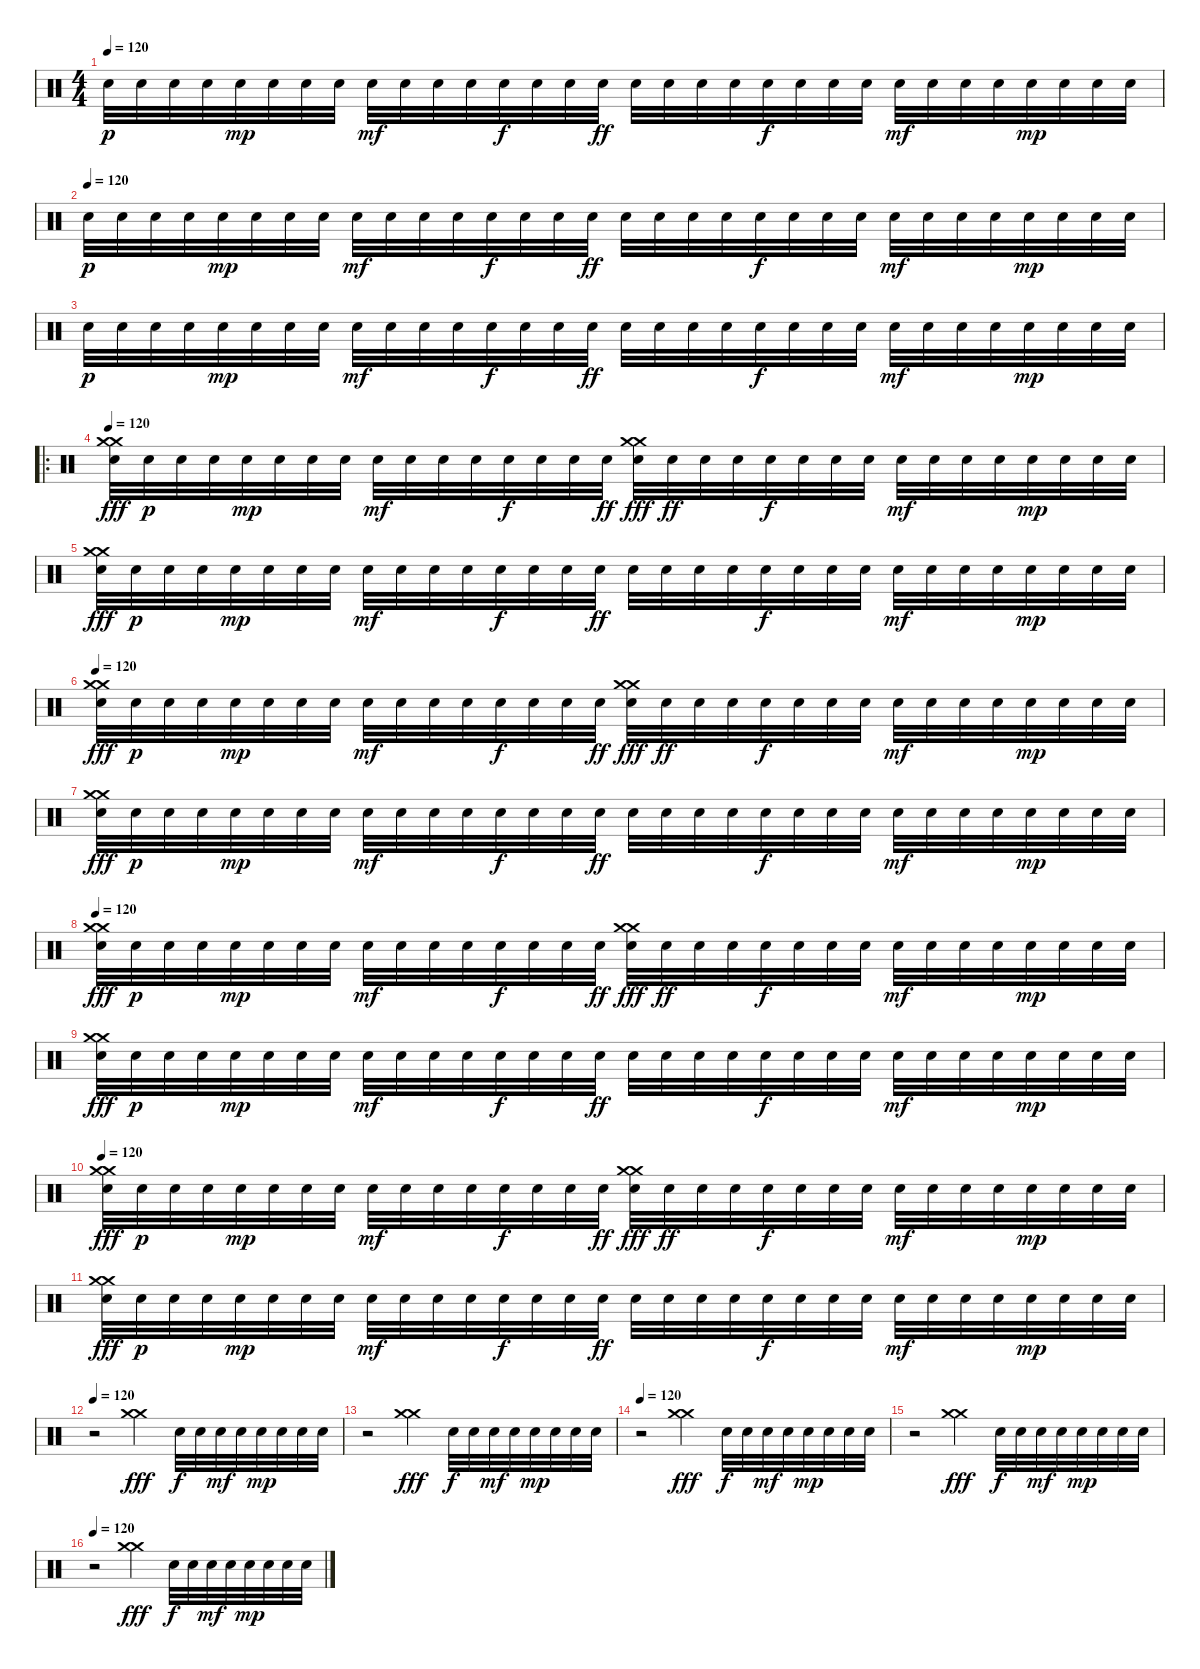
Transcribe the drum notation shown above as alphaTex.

\track "" {instrument percussion}
\staff {score}
\articulation defaults
\ts (4 4)
\tempo 120
\clef neutral
\ks c "Snare (hit) 2".32{dy p} "Snare (hit) 2".32 "Snare (hit) 2".32 "Snare (hit) 2".32 "Snare (hit) 2".32{dy mp} "Snare (hit) 2".32 "Snare (hit) 2".32 "Snare (hit) 2".32 "Snare (hit) 2".32{dy mf} "Snare (hit) 2".32 "Snare (hit) 2".32 "Snare (hit) 2".32 "Snare (hit) 2".32{dy f} "Snare (hit) 2".32 "Snare (hit) 2".32 "Snare (hit) 2".32{dy ff} "Snare (hit) 2".32 "Snare (hit) 2".32 "Snare (hit) 2".32 "Snare (hit) 2".32 "Snare (hit) 2".32{dy f} "Snare (hit) 2".32 "Snare (hit) 2".32 "Snare (hit) 2".32 "Snare (hit) 2".32{dy mf} "Snare (hit) 2".32 "Snare (hit) 2".32 "Snare (hit) 2".32 "Snare (hit) 2".32{dy mp} "Snare (hit) 2".32 "Snare (hit) 2".32 "Snare (hit) 2".32
|
\tempo (120)
"Snare (hit) 2".32{dy p} "Snare (hit) 2".32 "Snare (hit) 2".32 "Snare (hit) 2".32 "Snare (hit) 2".32{dy mp} "Snare (hit) 2".32 "Snare (hit) 2".32 "Snare (hit) 2".32 "Snare (hit) 2".32{dy mf} "Snare (hit) 2".32 "Snare (hit) 2".32 "Snare (hit) 2".32 "Snare (hit) 2".32{dy f} "Snare (hit) 2".32 "Snare (hit) 2".32 "Snare (hit) 2".32{dy ff} "Snare (hit) 2".32 "Snare (hit) 2".32 "Snare (hit) 2".32 "Snare (hit) 2".32 "Snare (hit) 2".32{dy f} "Snare (hit) 2".32 "Snare (hit) 2".32 "Snare (hit) 2".32 "Snare (hit) 2".32{dy mf} "Snare (hit) 2".32 "Snare (hit) 2".32 "Snare (hit) 2".32 "Snare (hit) 2".32{dy mp} "Snare (hit) 2".32 "Snare (hit) 2".32 "Snare (hit) 2".32 |
"Snare (hit) 2".32{dy p} "Snare (hit) 2".32 "Snare (hit) 2".32 "Snare (hit) 2".32 "Snare (hit) 2".32{dy mp} "Snare (hit) 2".32 "Snare (hit) 2".32 "Snare (hit) 2".32 "Snare (hit) 2".32{dy mf} "Snare (hit) 2".32 "Snare (hit) 2".32 "Snare (hit) 2".32 "Snare (hit) 2".32{dy f} "Snare (hit) 2".32 "Snare (hit) 2".32 "Snare (hit) 2".32{dy ff} "Snare (hit) 2".32 "Snare (hit) 2".32 "Snare (hit) 2".32 "Snare (hit) 2".32 "Snare (hit) 2".32{dy f} "Snare (hit) 2".32 "Snare (hit) 2".32 "Snare (hit) 2".32 "Snare (hit) 2".32{dy mf} "Snare (hit) 2".32 "Snare (hit) 2".32 "Snare (hit) 2".32 "Snare (hit) 2".32{dy mp} "Snare (hit) 2".32 "Snare (hit) 2".32 "Snare (hit) 2".32 |
\ro
\tempo 120
("Snare (hit) 2" "Crash medium (hit)" "Crash medium (hit)").32{dy fff} "Snare (hit) 2".32{dy p} "Snare (hit) 2".32 "Snare (hit) 2".32 "Snare (hit) 2".32{dy mp} "Snare (hit) 2".32 "Snare (hit) 2".32 "Snare (hit) 2".32 "Snare (hit) 2".32{dy mf} "Snare (hit) 2".32 "Snare (hit) 2".32 "Snare (hit) 2".32 "Snare (hit) 2".32{dy f} "Snare (hit) 2".32 "Snare (hit) 2".32 "Snare (hit) 2".32{dy ff} ("Snare (hit) 2" "Crash medium (hit)" "Crash medium (hit)").32{dy fff} "Snare (hit) 2".32{dy ff} "Snare (hit) 2".32 "Snare (hit) 2".32 "Snare (hit) 2".32{dy f} "Snare (hit) 2".32 "Snare (hit) 2".32 "Snare (hit) 2".32 "Snare (hit) 2".32{dy mf} "Snare (hit) 2".32 "Snare (hit) 2".32 "Snare (hit) 2".32 "Snare (hit) 2".32{dy mp} "Snare (hit) 2".32 "Snare (hit) 2".32 "Snare (hit) 2".32 |
("Snare (hit) 2" "Crash medium (hit)" "Crash medium (hit)").32{dy fff} "Snare (hit) 2".32{dy p} "Snare (hit) 2".32 "Snare (hit) 2".32 "Snare (hit) 2".32{dy mp} "Snare (hit) 2".32 "Snare (hit) 2".32 "Snare (hit) 2".32 "Snare (hit) 2".32{dy mf} "Snare (hit) 2".32 "Snare (hit) 2".32 "Snare (hit) 2".32 "Snare (hit) 2".32{dy f} "Snare (hit) 2".32 "Snare (hit) 2".32 "Snare (hit) 2".32{dy ff} "Snare (hit) 2".32 "Snare (hit) 2".32 "Snare (hit) 2".32 "Snare (hit) 2".32 "Snare (hit) 2".32{dy f} "Snare (hit) 2".32 "Snare (hit) 2".32 "Snare (hit) 2".32 "Snare (hit) 2".32{dy mf} "Snare (hit) 2".32 "Snare (hit) 2".32 "Snare (hit) 2".32 "Snare (hit) 2".32{dy mp} "Snare (hit) 2".32 "Snare (hit) 2".32 "Snare (hit) 2".32 |
\tempo 120
("Snare (hit) 2" "Crash medium (hit)" "Crash medium (hit)").32{dy fff} "Snare (hit) 2".32{dy p} "Snare (hit) 2".32 "Snare (hit) 2".32 "Snare (hit) 2".32{dy mp} "Snare (hit) 2".32 "Snare (hit) 2".32 "Snare (hit) 2".32 "Snare (hit) 2".32{dy mf} "Snare (hit) 2".32 "Snare (hit) 2".32 "Snare (hit) 2".32 "Snare (hit) 2".32{dy f} "Snare (hit) 2".32 "Snare (hit) 2".32 "Snare (hit) 2".32{dy ff} ("Snare (hit) 2" "Crash medium (hit)" "Crash medium (hit)").32{dy fff} "Snare (hit) 2".32{dy ff} "Snare (hit) 2".32 "Snare (hit) 2".32 "Snare (hit) 2".32{dy f} "Snare (hit) 2".32 "Snare (hit) 2".32 "Snare (hit) 2".32 "Snare (hit) 2".32{dy mf} "Snare (hit) 2".32 "Snare (hit) 2".32 "Snare (hit) 2".32 "Snare (hit) 2".32{dy mp} "Snare (hit) 2".32 "Snare (hit) 2".32 "Snare (hit) 2".32 |
("Snare (hit) 2" "Crash medium (hit)" "Crash medium (hit)").32{dy fff} "Snare (hit) 2".32{dy p} "Snare (hit) 2".32 "Snare (hit) 2".32 "Snare (hit) 2".32{dy mp} "Snare (hit) 2".32 "Snare (hit) 2".32 "Snare (hit) 2".32 "Snare (hit) 2".32{dy mf} "Snare (hit) 2".32 "Snare (hit) 2".32 "Snare (hit) 2".32 "Snare (hit) 2".32{dy f} "Snare (hit) 2".32 "Snare (hit) 2".32 "Snare (hit) 2".32{dy ff} "Snare (hit) 2".32 "Snare (hit) 2".32 "Snare (hit) 2".32 "Snare (hit) 2".32 "Snare (hit) 2".32{dy f} "Snare (hit) 2".32 "Snare (hit) 2".32 "Snare (hit) 2".32 "Snare (hit) 2".32{dy mf} "Snare (hit) 2".32 "Snare (hit) 2".32 "Snare (hit) 2".32 "Snare (hit) 2".32{dy mp} "Snare (hit) 2".32 "Snare (hit) 2".32 "Snare (hit) 2".32 |
\tempo 120
("Snare (hit) 2" "Crash medium (hit)" "Crash medium (hit)").32{dy fff} "Snare (hit) 2".32{dy p} "Snare (hit) 2".32 "Snare (hit) 2".32 "Snare (hit) 2".32{dy mp} "Snare (hit) 2".32 "Snare (hit) 2".32 "Snare (hit) 2".32 "Snare (hit) 2".32{dy mf} "Snare (hit) 2".32 "Snare (hit) 2".32 "Snare (hit) 2".32 "Snare (hit) 2".32{dy f} "Snare (hit) 2".32 "Snare (hit) 2".32 "Snare (hit) 2".32{dy ff} ("Snare (hit) 2" "Crash medium (hit)" "Crash medium (hit)").32{dy fff} "Snare (hit) 2".32{dy ff} "Snare (hit) 2".32 "Snare (hit) 2".32 "Snare (hit) 2".32{dy f} "Snare (hit) 2".32 "Snare (hit) 2".32 "Snare (hit) 2".32 "Snare (hit) 2".32{dy mf} "Snare (hit) 2".32 "Snare (hit) 2".32 "Snare (hit) 2".32 "Snare (hit) 2".32{dy mp} "Snare (hit) 2".32 "Snare (hit) 2".32 "Snare (hit) 2".32 |
("Snare (hit) 2" "Crash medium (hit)" "Crash medium (hit)").32{dy fff} "Snare (hit) 2".32{dy p} "Snare (hit) 2".32 "Snare (hit) 2".32 "Snare (hit) 2".32{dy mp} "Snare (hit) 2".32 "Snare (hit) 2".32 "Snare (hit) 2".32 "Snare (hit) 2".32{dy mf} "Snare (hit) 2".32 "Snare (hit) 2".32 "Snare (hit) 2".32 "Snare (hit) 2".32{dy f} "Snare (hit) 2".32 "Snare (hit) 2".32 "Snare (hit) 2".32{dy ff} "Snare (hit) 2".32 "Snare (hit) 2".32 "Snare (hit) 2".32 "Snare (hit) 2".32 "Snare (hit) 2".32{dy f} "Snare (hit) 2".32 "Snare (hit) 2".32 "Snare (hit) 2".32 "Snare (hit) 2".32{dy mf} "Snare (hit) 2".32 "Snare (hit) 2".32 "Snare (hit) 2".32 "Snare (hit) 2".32{dy mp} "Snare (hit) 2".32 "Snare (hit) 2".32 "Snare (hit) 2".32 |
\tempo 120
("Snare (hit) 2" "Crash medium (hit)" "Crash medium (hit)").32{dy fff} "Snare (hit) 2".32{dy p} "Snare (hit) 2".32 "Snare (hit) 2".32 "Snare (hit) 2".32{dy mp} "Snare (hit) 2".32 "Snare (hit) 2".32 "Snare (hit) 2".32 "Snare (hit) 2".32{dy mf} "Snare (hit) 2".32 "Snare (hit) 2".32 "Snare (hit) 2".32 "Snare (hit) 2".32{dy f} "Snare (hit) 2".32 "Snare (hit) 2".32 "Snare (hit) 2".32{dy ff} ("Snare (hit) 2" "Crash medium (hit)" "Crash medium (hit)").32{dy fff} "Snare (hit) 2".32{dy ff} "Snare (hit) 2".32 "Snare (hit) 2".32 "Snare (hit) 2".32{dy f} "Snare (hit) 2".32 "Snare (hit) 2".32 "Snare (hit) 2".32 "Snare (hit) 2".32{dy mf} "Snare (hit) 2".32 "Snare (hit) 2".32 "Snare (hit) 2".32 "Snare (hit) 2".32{dy mp} "Snare (hit) 2".32 "Snare (hit) 2".32 "Snare (hit) 2".32 |
("Snare (hit) 2" "Crash medium (hit)" "Crash medium (hit)").32{dy fff} "Snare (hit) 2".32{dy p} "Snare (hit) 2".32 "Snare (hit) 2".32 "Snare (hit) 2".32{dy mp} "Snare (hit) 2".32 "Snare (hit) 2".32 "Snare (hit) 2".32 "Snare (hit) 2".32{dy mf} "Snare (hit) 2".32 "Snare (hit) 2".32 "Snare (hit) 2".32 "Snare (hit) 2".32{dy f} "Snare (hit) 2".32 "Snare (hit) 2".32 "Snare (hit) 2".32{dy ff} "Snare (hit) 2".32 "Snare (hit) 2".32 "Snare (hit) 2".32 "Snare (hit) 2".32 "Snare (hit) 2".32{dy f} "Snare (hit) 2".32 "Snare (hit) 2".32 "Snare (hit) 2".32 "Snare (hit) 2".32{dy mf} "Snare (hit) 2".32 "Snare (hit) 2".32 "Snare (hit) 2".32 "Snare (hit) 2".32{dy mp} "Snare (hit) 2".32 "Snare (hit) 2".32 "Snare (hit) 2".32 |
\tempo 120
r.2 ("Crash medium (hit)" "Crash medium (hit)").4{dy fff} "Snare (hit) 2".32{dy f} "Snare (hit) 2".32 "Snare (hit) 2".32{dy mf} "Snare (hit) 2".32 "Snare (hit) 2".32{dy mp} "Snare (hit) 2".32 "Snare (hit) 2".32 "Snare (hit) 2".32 |
r.2 ("Crash medium (hit)" "Crash medium (hit)").4{dy fff} "Snare (hit) 2".32{dy f} "Snare (hit) 2".32 "Snare (hit) 2".32{dy mf} "Snare (hit) 2".32 "Snare (hit) 2".32{dy mp} "Snare (hit) 2".32 "Snare (hit) 2".32 "Snare (hit) 2".32 |
\tempo 120
r.2 ("Crash medium (hit)" "Crash medium (hit)").4{dy fff} "Snare (hit) 2".32{dy f} "Snare (hit) 2".32 "Snare (hit) 2".32{dy mf} "Snare (hit) 2".32 "Snare (hit) 2".32{dy mp} "Snare (hit) 2".32 "Snare (hit) 2".32 "Snare (hit) 2".32 |
r.2 ("Crash medium (hit)" "Crash medium (hit)").4{dy fff} "Snare (hit) 2".32{dy f} "Snare (hit) 2".32 "Snare (hit) 2".32{dy mf} "Snare (hit) 2".32 "Snare (hit) 2".32{dy mp} "Snare (hit) 2".32 "Snare (hit) 2".32 "Snare (hit) 2".32 |
\tempo 120
r.2 ("Crash medium (hit)" "Crash medium (hit)").4{dy fff} "Snare (hit) 2".32{dy f} "Snare (hit) 2".32 "Snare (hit) 2".32{dy mf} "Snare (hit) 2".32 "Snare (hit) 2".32{dy mp} "Snare (hit) 2".32 "Snare (hit) 2".32 "Snare (hit) 2".32
